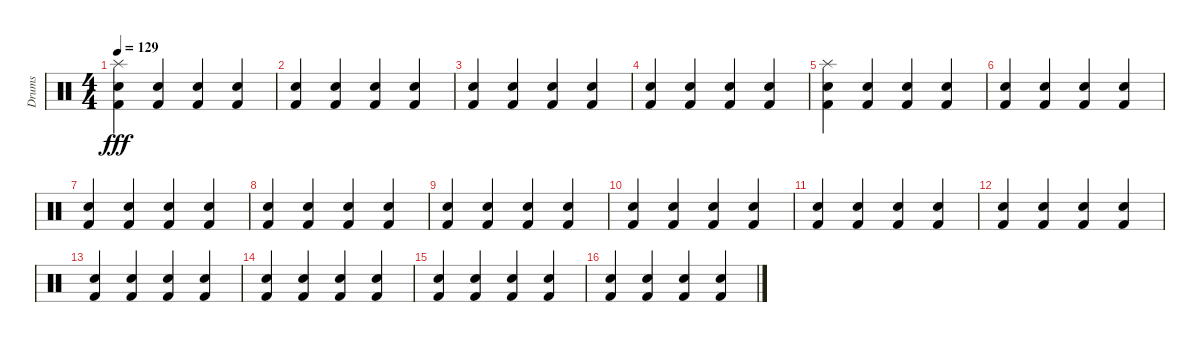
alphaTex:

\track ("Drums" "Drums") {instrument percussion}
\staff {score}
\articulation defaults
\ts (4 4)
\tempo 129
\clef neutral
\ks c
("Splash (hit)" "Hand Clap (hit)" "Kick (hit) 2").4{dy fff} ("Hand Clap (hit)" "Kick (hit) 2").4 ("Hand Clap (hit)" "Kick (hit) 2").4 ("Hand Clap (hit)" "Kick (hit) 2").4 |
("Hand Clap (hit)" "Kick (hit) 2").4 ("Hand Clap (hit)" "Kick (hit) 2").4 ("Hand Clap (hit)" "Kick (hit) 2").4 ("Hand Clap (hit)" "Kick (hit) 2").4 |
("Hand Clap (hit)" "Kick (hit) 2").4 ("Hand Clap (hit)" "Kick (hit) 2").4 ("Hand Clap (hit)" "Kick (hit) 2").4 ("Hand Clap (hit)" "Kick (hit) 2").4 |
("Hand Clap (hit)" "Kick (hit) 2").4 ("Hand Clap (hit)" "Kick (hit) 2").4 ("Hand Clap (hit)" "Kick (hit) 2").4 ("Hand Clap (hit)" "Kick (hit) 2").4 |
("Splash (hit)" "Hand Clap (hit)" "Kick (hit) 2").4 ("Hand Clap (hit)" "Kick (hit) 2").4 ("Hand Clap (hit)" "Kick (hit) 2").4 ("Hand Clap (hit)" "Kick (hit) 2").4 |
("Hand Clap (hit)" "Kick (hit) 2").4 ("Hand Clap (hit)" "Kick (hit) 2").4 ("Hand Clap (hit)" "Kick (hit) 2").4 ("Hand Clap (hit)" "Kick (hit) 2").4 |
("Hand Clap (hit)" "Kick (hit) 2").4 ("Hand Clap (hit)" "Kick (hit) 2").4 ("Hand Clap (hit)" "Kick (hit) 2").4 ("Hand Clap (hit)" "Kick (hit) 2").4 |
("Hand Clap (hit)" "Kick (hit) 2").4 ("Hand Clap (hit)" "Kick (hit) 2").4 ("Hand Clap (hit)" "Kick (hit) 2").4 ("Hand Clap (hit)" "Kick (hit) 2").4 |
("Hand Clap (hit)" "Kick (hit) 2").4 ("Hand Clap (hit)" "Kick (hit) 2").4 ("Hand Clap (hit)" "Kick (hit) 2").4 ("Hand Clap (hit)" "Kick (hit) 2").4 |
("Hand Clap (hit)" "Kick (hit) 2").4 ("Hand Clap (hit)" "Kick (hit) 2").4 ("Hand Clap (hit)" "Kick (hit) 2").4 ("Hand Clap (hit)" "Kick (hit) 2").4 |
("Hand Clap (hit)" "Kick (hit) 2").4 ("Hand Clap (hit)" "Kick (hit) 2").4 ("Hand Clap (hit)" "Kick (hit) 2").4 ("Hand Clap (hit)" "Kick (hit) 2").4 |
("Hand Clap (hit)" "Kick (hit) 2").4 ("Hand Clap (hit)" "Kick (hit) 2").4 ("Hand Clap (hit)" "Kick (hit) 2").4 ("Hand Clap (hit)" "Kick (hit) 2").4 |
("Hand Clap (hit)" "Kick (hit) 2").4 ("Hand Clap (hit)" "Kick (hit) 2").4 ("Hand Clap (hit)" "Kick (hit) 2").4 ("Hand Clap (hit)" "Kick (hit) 2").4 |
("Hand Clap (hit)" "Kick (hit) 2").4 ("Hand Clap (hit)" "Kick (hit) 2").4 ("Hand Clap (hit)" "Kick (hit) 2").4 ("Hand Clap (hit)" "Kick (hit) 2").4 |
("Hand Clap (hit)" "Kick (hit) 2").4 ("Hand Clap (hit)" "Kick (hit) 2").4 ("Hand Clap (hit)" "Kick (hit) 2").4 ("Hand Clap (hit)" "Kick (hit) 2").4 |
("Hand Clap (hit)" "Kick (hit) 2").4 ("Hand Clap (hit)" "Kick (hit) 2").4 ("Hand Clap (hit)" "Kick (hit) 2").4 ("Hand Clap (hit)" "Kick (hit) 2").4
